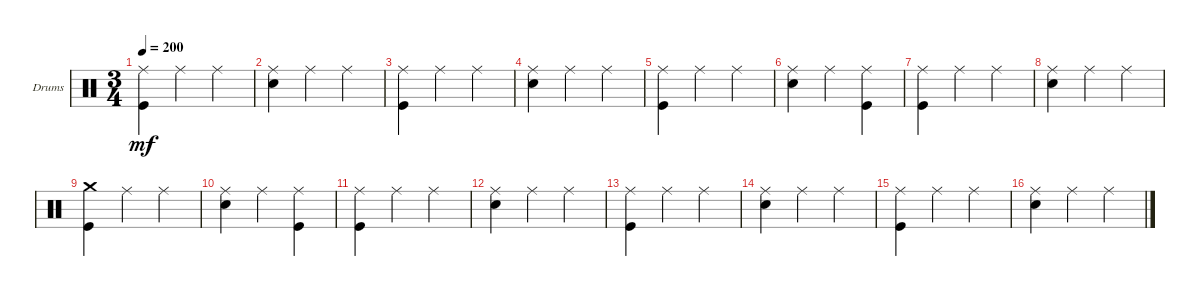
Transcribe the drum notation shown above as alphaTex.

\bracketExtendMode groupsimilarinstruments
\firstSystemTrackNameOrientation horizontal
\otherSystemsTrackNameOrientation horizontal
\track ("Drumkit" "Drums") {instrument percussion}
\staff {score}
\articulation defaults
\ts (3 4)
\tempo 200
\clef neutral
\scale
0.333333
\ks c
("Kick (hit)" "Ride (middle)").4{dy mf} "Ride (middle)".4 "Ride (middle)".4 |
\scale
0.333333 ("Snare (hit) 2" "Ride (middle)").4 "Ride (middle)".4 "Ride (middle)".4 |
\scale
0.333333 ("Kick (hit)" "Ride (middle)").4 "Ride (middle)".4 "Ride (middle)".4 |
\scale
0.333333 ("Snare (hit) 2" "Ride (middle)").4 "Ride (middle)".4 "Ride (middle)".4 |
\scale
0.333333 ("Kick (hit)" "Ride (middle)").4 "Ride (middle)".4 "Ride (middle)".4 |
\scale
0.333333 ("Snare (hit) 2" "Ride (middle)").4 "Ride (middle)".4 ("Ride (middle)" "Kick (hit)").4 |
\scale
0.333333 ("Kick (hit)" "Ride (middle)").4 "Ride (middle)".4 "Ride (middle)".4 |
\scale
0.333333 ("Snare (hit) 2" "Ride (middle)").4 "Ride (middle)".4 "Ride (middle)".4 |
\scale
0.333333 ("Kick (hit)" "Crash medium (hit)").4 "Ride (middle)".4 "Ride (middle)".4 |
\scale
0.333333 ("Snare (hit) 2" "Ride (middle)").4 "Ride (middle)".4 ("Ride (middle)" "Kick (hit)").4 |
\scale
0.333333 ("Kick (hit)" "Ride (middle)").4 "Ride (middle)".4 "Ride (middle)".4 |
\scale
0.333333 ("Snare (hit) 2" "Ride (middle)").4 "Ride (middle)".4 "Ride (middle)".4 |
\scale
0.333333 ("Kick (hit)" "Ride (middle)").4 "Ride (middle)".4 "Ride (middle)".4 |
\scale
0.333333 ("Snare (hit) 2" "Ride (middle)").4 "Ride (middle)".4 "Ride (middle)".4 |
\scale
0.333333 ("Kick (hit)" "Ride (middle)").4 "Ride (middle)".4 "Ride (middle)".4 |
\scale
0.333333 ("Snare (hit) 2" "Ride (middle)").4 "Ride (middle)".4 "Ride (middle)".4
